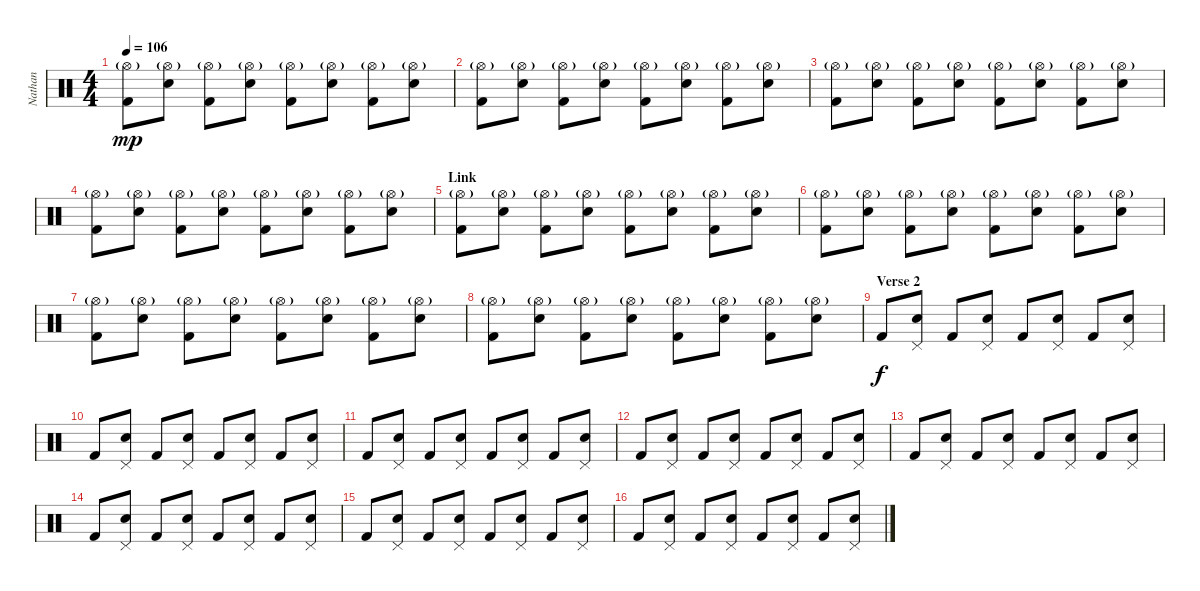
\track ("Nathan" "Nathan") {instrument percussion}
\staff {score}
\articulation defaults
\ts (4 4)
\tempo 106
\clef neutral
\ks c
("Hi-Hat (open)"{g} "Kick (hit) 2").8{dy mp} ("Hi-Hat (open)"{g} "Snare (hit) 2").8 ("Hi-Hat (open)"{g} "Kick (hit) 2").8 ("Hi-Hat (open)"{g} "Snare (hit) 2").8 ("Hi-Hat (open)"{g} "Kick (hit) 2").8 ("Hi-Hat (open)"{g} "Snare (hit) 2").8 ("Hi-Hat (open)"{g} "Kick (hit) 2").8 ("Hi-Hat (open)"{g} "Snare (hit) 2").8 |
("Hi-Hat (open)"{g} "Kick (hit) 2").8 ("Hi-Hat (open)"{g} "Snare (hit) 2").8 ("Hi-Hat (open)"{g} "Kick (hit) 2").8 ("Hi-Hat (open)"{g} "Snare (hit) 2").8 ("Hi-Hat (open)"{g} "Kick (hit) 2").8 ("Hi-Hat (open)"{g} "Snare (hit) 2").8 ("Hi-Hat (open)"{g} "Kick (hit) 2").8 ("Hi-Hat (open)"{g} "Snare (hit) 2").8 |
("Hi-Hat (open)"{g} "Kick (hit) 2").8 ("Hi-Hat (open)"{g} "Snare (hit) 2").8 ("Hi-Hat (open)"{g} "Kick (hit) 2").8 ("Hi-Hat (open)"{g} "Snare (hit) 2").8 ("Hi-Hat (open)"{g} "Kick (hit) 2").8 ("Hi-Hat (open)"{g} "Snare (hit) 2").8 ("Hi-Hat (open)"{g} "Kick (hit) 2").8 ("Hi-Hat (open)"{g} "Snare (hit) 2").8 |
("Hi-Hat (open)"{g} "Kick (hit) 2").8 ("Hi-Hat (open)"{g} "Snare (hit) 2").8 ("Hi-Hat (open)"{g} "Kick (hit) 2").8 ("Hi-Hat (open)"{g} "Snare (hit) 2").8 ("Hi-Hat (open)"{g} "Kick (hit) 2").8 ("Hi-Hat (open)"{g} "Snare (hit) 2").8 ("Hi-Hat (open)"{g} "Kick (hit) 2").8 ("Hi-Hat (open)"{g} "Snare (hit) 2").8 |
\section ("" "Link")
("Hi-Hat (open)"{g} "Kick (hit) 2").8 ("Hi-Hat (open)"{g} "Snare (hit) 2").8 ("Hi-Hat (open)"{g} "Kick (hit) 2").8 ("Hi-Hat (open)"{g} "Snare (hit) 2").8 ("Hi-Hat (open)"{g} "Kick (hit) 2").8 ("Hi-Hat (open)"{g} "Snare (hit) 2").8 ("Hi-Hat (open)"{g} "Kick (hit) 2").8 ("Hi-Hat (open)"{g} "Snare (hit) 2").8 |
("Hi-Hat (open)"{g} "Kick (hit) 2").8 ("Hi-Hat (open)"{g} "Snare (hit) 2").8 ("Hi-Hat (open)"{g} "Kick (hit) 2").8 ("Hi-Hat (open)"{g} "Snare (hit) 2").8 ("Hi-Hat (open)"{g} "Kick (hit) 2").8 ("Hi-Hat (open)"{g} "Snare (hit) 2").8 ("Hi-Hat (open)"{g} "Kick (hit) 2").8 ("Hi-Hat (open)"{g} "Snare (hit) 2").8 |
("Hi-Hat (open)"{g} "Kick (hit) 2").8 ("Hi-Hat (open)"{g} "Snare (hit) 2").8 ("Hi-Hat (open)"{g} "Kick (hit) 2").8 ("Hi-Hat (open)"{g} "Snare (hit) 2").8 ("Hi-Hat (open)"{g} "Kick (hit) 2").8 ("Hi-Hat (open)"{g} "Snare (hit) 2").8 ("Hi-Hat (open)"{g} "Kick (hit) 2").8 ("Hi-Hat (open)"{g} "Snare (hit) 2").8 |
("Hi-Hat (open)"{g} "Kick (hit) 2").8 ("Hi-Hat (open)"{g} "Snare (hit) 2").8 ("Hi-Hat (open)"{g} "Kick (hit) 2").8 ("Hi-Hat (open)"{g} "Snare (hit) 2").8 ("Hi-Hat (open)"{g} "Kick (hit) 2").8 ("Hi-Hat (open)"{g} "Snare (hit) 2").8 ("Hi-Hat (open)"{g} "Kick (hit) 2").8 ("Hi-Hat (open)"{g} "Snare (hit) 2").8 |
\section ("" "Verse 2")
"Kick (hit) 2".8{dy f} ("Pedal Hi-Hat (hit)" "Snare (hit) 2").8 "Kick (hit) 2".8 ("Pedal Hi-Hat (hit)" "Snare (hit) 2").8 "Kick (hit) 2".8 ("Pedal Hi-Hat (hit)" "Snare (hit) 2").8 "Kick (hit) 2".8 ("Pedal Hi-Hat (hit)" "Snare (hit) 2").8 |
"Kick (hit) 2".8 ("Pedal Hi-Hat (hit)" "Snare (hit) 2").8 "Kick (hit) 2".8 ("Pedal Hi-Hat (hit)" "Snare (hit) 2").8 "Kick (hit) 2".8 ("Pedal Hi-Hat (hit)" "Snare (hit) 2").8 "Kick (hit) 2".8 ("Pedal Hi-Hat (hit)" "Snare (hit) 2").8 |
"Kick (hit) 2".8 ("Pedal Hi-Hat (hit)" "Snare (hit) 2").8 "Kick (hit) 2".8 ("Pedal Hi-Hat (hit)" "Snare (hit) 2").8 "Kick (hit) 2".8 ("Pedal Hi-Hat (hit)" "Snare (hit) 2").8 "Kick (hit) 2".8 ("Pedal Hi-Hat (hit)" "Snare (hit) 2").8 |
"Kick (hit) 2".8 ("Pedal Hi-Hat (hit)" "Snare (hit) 2").8 "Kick (hit) 2".8 ("Pedal Hi-Hat (hit)" "Snare (hit) 2").8 "Kick (hit) 2".8 ("Pedal Hi-Hat (hit)" "Snare (hit) 2").8 "Kick (hit) 2".8 ("Pedal Hi-Hat (hit)" "Snare (hit) 2").8 |
"Kick (hit) 2".8 ("Pedal Hi-Hat (hit)" "Snare (hit) 2").8 "Kick (hit) 2".8 ("Pedal Hi-Hat (hit)" "Snare (hit) 2").8 "Kick (hit) 2".8 ("Pedal Hi-Hat (hit)" "Snare (hit) 2").8 "Kick (hit) 2".8 ("Pedal Hi-Hat (hit)" "Snare (hit) 2").8 |
"Kick (hit) 2".8 ("Pedal Hi-Hat (hit)" "Snare (hit) 2").8 "Kick (hit) 2".8 ("Pedal Hi-Hat (hit)" "Snare (hit) 2").8 "Kick (hit) 2".8 ("Pedal Hi-Hat (hit)" "Snare (hit) 2").8 "Kick (hit) 2".8 ("Pedal Hi-Hat (hit)" "Snare (hit) 2").8 |
"Kick (hit) 2".8 ("Pedal Hi-Hat (hit)" "Snare (hit) 2").8 "Kick (hit) 2".8 ("Pedal Hi-Hat (hit)" "Snare (hit) 2").8 "Kick (hit) 2".8 ("Pedal Hi-Hat (hit)" "Snare (hit) 2").8 "Kick (hit) 2".8 ("Pedal Hi-Hat (hit)" "Snare (hit) 2").8 |
"Kick (hit) 2".8 ("Pedal Hi-Hat (hit)" "Snare (hit) 2").8 "Kick (hit) 2".8 ("Pedal Hi-Hat (hit)" "Snare (hit) 2").8 "Kick (hit) 2".8 ("Pedal Hi-Hat (hit)" "Snare (hit) 2").8 "Kick (hit) 2".8 ("Pedal Hi-Hat (hit)" "Snare (hit) 2").8
